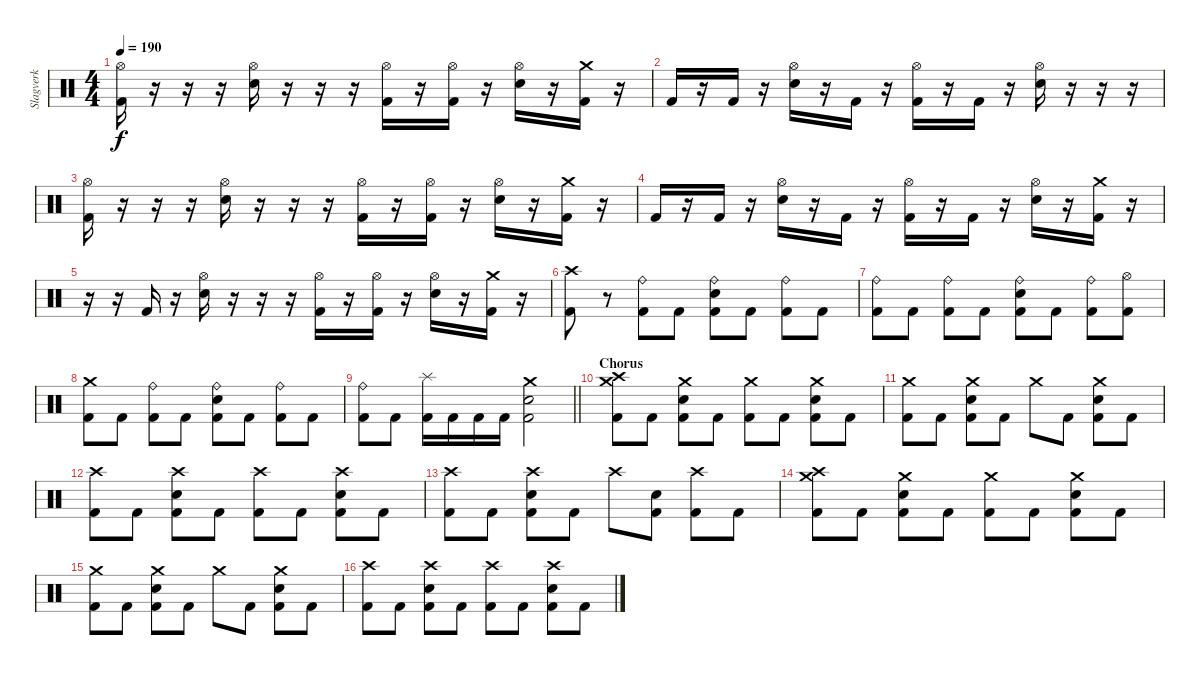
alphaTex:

\track ("Slagverk" "Slagverk") {instrument percussion}
\staff {score}
\articulation defaults
\ts (4 4)
\tempo 190
\clef neutral
\ks c
("Hi-Hat (open)" "Kick (hit) 2").16{dy f} r.16 r.16 r.16 ("Electric Snare (hit)" "Hi-Hat (open)").16 r.16 r.16 r.16 ("Hi-Hat (open)" "Kick (hit) 2").16 r.16 ("Hi-Hat (open)" "Kick (hit) 2").16 r.16 ("Electric Snare (hit)" "Hi-Hat (open)").16 r.16 ("Crash medium (hit)" "Kick (hit) 2").16 r.16 |
"Kick (hit) 2".16 r.16 "Kick (hit) 2".16 r.16 ("Electric Snare (hit)" "Hi-Hat (open)").16 r.16 "Kick (hit) 2".16 r.16 ("Hi-Hat (open)" "Kick (hit) 2").16 r.16 "Kick (hit) 2".16 r.16 ("Electric Snare (hit)" "Hi-Hat (open)").16 r.16 r.16 r.16 |
("Hi-Hat (open)" "Kick (hit) 2").16 r.16 r.16 r.16 ("Electric Snare (hit)" "Hi-Hat (open)").16 r.16 r.16 r.16 ("Hi-Hat (open)" "Kick (hit) 2").16 r.16 ("Hi-Hat (open)" "Kick (hit) 2").16 r.16 ("Electric Snare (hit)" "Hi-Hat (open)").16 r.16 ("Crash medium (hit)" "Kick (hit) 2").16 r.16 |
"Kick (hit) 2".16 r.16 "Kick (hit) 2".16 r.16 ("Electric Snare (hit)" "Hi-Hat (open)").16 r.16 "Kick (hit) 2".16 r.16 ("Hi-Hat (open)" "Kick (hit) 2").16 r.16 "Kick (hit) 2".16 r.16 ("Electric Snare (hit)" "Hi-Hat (open)").16 r.16 ("Crash medium (hit)" "Kick (hit) 2").16 r.16 |
r.16 r.16 "Kick (hit) 2".16 r.16 ("Electric Snare (hit)" "Hi-Hat (open)").16 r.16 r.16 r.16 ("Hi-Hat (open)" "Kick (hit) 2").16 r.16 ("Hi-Hat (open)" "Kick (hit) 2").16 r.16 ("Electric Snare (hit)" "Hi-Hat (open)").16 r.16 ("Crash medium (hit)" "Kick (hit) 2").16 r.16 |
("Crash high (hit)" "Kick (hit) 2").8 r.8 ("Ride (bell)" "Kick (hit) 2").8 "Kick (hit) 2".8 ("Ride (bell)" "Electric Snare (hit)" "Kick (hit) 2").8 "Kick (hit) 2".8 ("Ride (bell)" "Kick (hit) 2").8 "Kick (hit) 2".8 |
("Ride (bell)" "Kick (hit) 2").8 "Kick (hit) 2".8 ("Ride (bell)" "Kick (hit) 2").8 "Kick (hit) 2".8 ("Ride (bell)" "Electric Snare (hit)" "Kick (hit) 2").8 "Kick (hit) 2".8 ("Ride (bell)" "Kick (hit) 2").8 ("Hi-Hat (open)" "Kick (hit) 2").8 |
("Crash medium (hit)" "Kick (hit) 2").8 "Kick (hit) 2".8 ("Ride (bell)" "Kick (hit) 2").8 "Kick (hit) 2".8 ("Ride (bell)" "Electric Snare (hit)" "Kick (hit) 2").8 "Kick (hit) 2".8 ("Ride (bell)" "Kick (hit) 2").8 "Kick (hit) 2".8 |
\barLineRight lightlight
("Ride (bell)" "Kick (hit) 2").8 "Kick (hit) 2".8 ("Splash (hit)" "Kick (hit) 2").16 "Kick (hit) 2".16 "Kick (hit) 2".16 "Kick (hit) 2".16 ("Crash medium (hit)" "Electric Snare (hit)" "Kick (hit) 2").2 |
\section ("" "Chorus")
("Crash medium (hit)" "Crash high (hit)" "Kick (hit) 2").8 "Kick (hit) 2".8 ("Crash medium (hit)" "Electric Snare (hit)" "Kick (hit) 2").8 "Kick (hit) 2".8 ("Crash medium (hit)" "Kick (hit) 2").8 "Kick (hit) 2".8 ("Crash medium (hit)" "Electric Snare (hit)" "Kick (hit) 2").8 "Kick (hit) 2".8 |
("Crash medium (hit)" "Kick (hit) 2").8 "Kick (hit) 2".8 ("Crash medium (hit)" "Electric Snare (hit)" "Kick (hit) 2").8 "Kick (hit) 2".8 "Crash medium (hit)".8 "Kick (hit) 2".8 ("Crash medium (hit)" "Electric Snare (hit)" "Kick (hit) 2").8 "Kick (hit) 2".8 |
("Crash high (hit)" "Kick (hit) 2").8 "Kick (hit) 2".8 ("Crash high (hit)" "Electric Snare (hit)" "Kick (hit) 2").8 "Kick (hit) 2".8 ("Crash high (hit)" "Kick (hit) 2").8 "Kick (hit) 2".8 ("Crash high (hit)" "Electric Snare (hit)" "Kick (hit) 2").8 "Kick (hit) 2".8 |
("Crash high (hit)" "Kick (hit) 2").8 "Kick (hit) 2".8 ("Crash high (hit)" "Electric Snare (hit)" "Kick (hit) 2").8 "Kick (hit) 2".8 "Crash high (hit)".8 ("Electric Snare (hit)" "Kick (hit) 2").8 ("Crash high (hit)" "Kick (hit) 2").8 "Kick (hit) 2".8 |
("Crash medium (hit)" "Crash high (hit)" "Kick (hit) 2").8 "Kick (hit) 2".8 ("Crash medium (hit)" "Electric Snare (hit)" "Kick (hit) 2").8 "Kick (hit) 2".8 ("Crash medium (hit)" "Kick (hit) 2").8 "Kick (hit) 2".8 ("Crash medium (hit)" "Electric Snare (hit)" "Kick (hit) 2").8 "Kick (hit) 2".8 |
("Crash medium (hit)" "Kick (hit) 2").8 "Kick (hit) 2".8 ("Crash medium (hit)" "Electric Snare (hit)" "Kick (hit) 2").8 "Kick (hit) 2".8 "Crash medium (hit)".8 "Kick (hit) 2".8 ("Crash medium (hit)" "Electric Snare (hit)" "Kick (hit) 2").8 "Kick (hit) 2".8 |
("Crash high (hit)" "Kick (hit) 2").8 "Kick (hit) 2".8 ("Crash high (hit)" "Electric Snare (hit)" "Kick (hit) 2").8 "Kick (hit) 2".8 ("Crash high (hit)" "Kick (hit) 2").8 "Kick (hit) 2".8 ("Crash high (hit)" "Electric Snare (hit)" "Kick (hit) 2").8 "Kick (hit) 2".8
